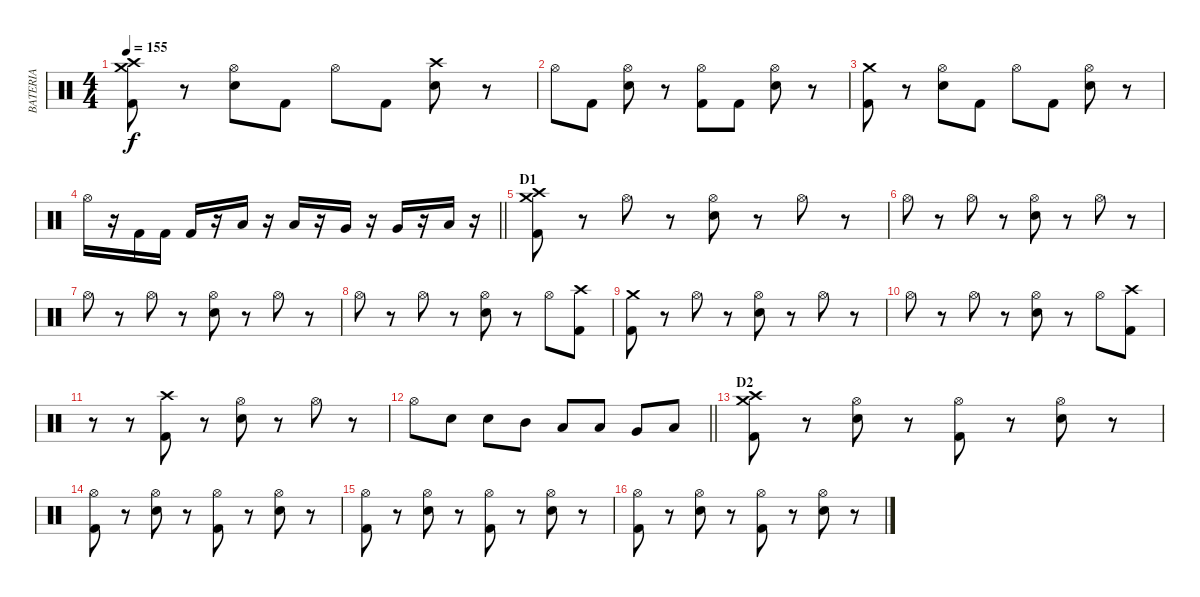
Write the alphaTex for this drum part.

\track ("BATERIA" "BATERIA") {instrument percussion}
\staff {score}
\articulation defaults
\ts (4 4)
\tempo 155
\clef neutral
\ks c
("Kick (hit) 2" "Crash high (hit)" "Crash medium (hit)").8{dy f} r.8 ("Hi-Hat (open)" "Electric Snare (hit)").8 "Kick (hit) 2".8 "Hi-Hat (open)".8 "Kick (hit) 2".8 ("Electric Snare (hit)" "Crash high (hit)").8 r.8 |
"Hi-Hat (open)".8 "Kick (hit) 2".8 ("Hi-Hat (open)" "Electric Snare (hit)").8 r.8 ("Kick (hit) 2" "Hi-Hat (open)").8 "Kick (hit) 2".8 ("Hi-Hat (open)" "Electric Snare (hit)").8 r.8 |
("Kick (hit) 2" "Crash medium (hit)").8 r.8 ("Hi-Hat (open)" "Electric Snare (hit)").8 "Kick (hit) 2".8 "Hi-Hat (open)".8 "Kick (hit) 2".8 ("Hi-Hat (open)" "Electric Snare (hit)").8 r.8 |
\barLineRight lightlight "Hi-Hat (open)".16
r.16 "Kick (hit) 2".16 "Kick (hit) 2".16 "Kick (hit) 2".16 r.16 "Low Tom (hit)".16 r.16 "Low Tom (hit)".16 r.16 "Very Low Tom (hit)".16 r.16 "Very Low Tom (hit)".16 r.16 "Low Floor Tom (hit)".16 r.16 |
\section ("" "D1")
("Kick (hit) 2" "Crash medium (hit)" "Crash high (hit)").8 r.8 "Hi-Hat (open)".8 r.8 ("Hi-Hat (open)" "Electric Snare (hit)").8 r.8 "Hi-Hat (open)".8 r.8 |
"Hi-Hat (open)".8 r.8 "Hi-Hat (open)".8 r.8 ("Hi-Hat (open)" "Electric Snare (hit)").8 r.8 "Hi-Hat (open)".8 r.8 |
"Hi-Hat (open)".8 r.8 "Hi-Hat (open)".8 r.8 ("Hi-Hat (open)" "Electric Snare (hit)").8 r.8 "Hi-Hat (open)".8 r.8 |
"Hi-Hat (open)".8 r.8 "Hi-Hat (open)".8 r.8 ("Hi-Hat (open)" "Electric Snare (hit)").8 r.8 "Hi-Hat (open)".8 ("Kick (hit) 2" "Crash high (hit)").8 |
("Kick (hit) 2" "Crash medium (hit)").8 r.8 "Hi-Hat (open)".8 r.8 ("Hi-Hat (open)" "Electric Snare (hit)").8 r.8 "Hi-Hat (open)".8 r.8 |
"Hi-Hat (open)".8 r.8 "Hi-Hat (open)".8 r.8 ("Hi-Hat (open)" "Electric Snare (hit)").8 r.8 "Hi-Hat (open)".8 ("Kick (hit) 2" "Crash high (hit)").8 |
r.8 r.8 ("Kick (hit) 2" "Crash high (hit)").8 r.8 ("Hi-Hat (open)" "Electric Snare (hit)").8 r.8 "Hi-Hat (open)".8 r.8 |
\barLineRight lightlight "Hi-Hat (open)".8 "Electric Snare (hit)".8 "Electric Snare (hit)".8 "Mid Tom (hit)".8 "Low Tom (hit)".8 "Low Tom (hit)".8 "Very Low Tom (hit)".8 "Low Floor Tom (hit)".8
|
\section ("" "D2")
("Kick (hit) 2" "Crash high (hit)" "Crash medium (hit)").8 r.8 ("Hi-Hat (open)" "Electric Snare (hit)").8 r.8 ("Kick (hit) 2" "Hi-Hat (open)").8 r.8 ("Hi-Hat (open)" "Electric Snare (hit)").8 r.8 |
("Kick (hit) 2" "Hi-Hat (open)").8 r.8 ("Hi-Hat (open)" "Electric Snare (hit)").8 r.8 ("Kick (hit) 2" "Hi-Hat (open)").8 r.8 ("Hi-Hat (open)" "Electric Snare (hit)").8 r.8 |
("Kick (hit) 2" "Hi-Hat (open)").8 r.8 ("Hi-Hat (open)" "Electric Snare (hit)").8 r.8 ("Kick (hit) 2" "Hi-Hat (open)").8 r.8 ("Hi-Hat (open)" "Electric Snare (hit)").8 r.8 |
("Kick (hit) 2" "Hi-Hat (open)").8 r.8 ("Hi-Hat (open)" "Electric Snare (hit)").8 r.8 ("Kick (hit) 2" "Hi-Hat (open)").8 r.8 ("Hi-Hat (open)" "Electric Snare (hit)").8 r.8
